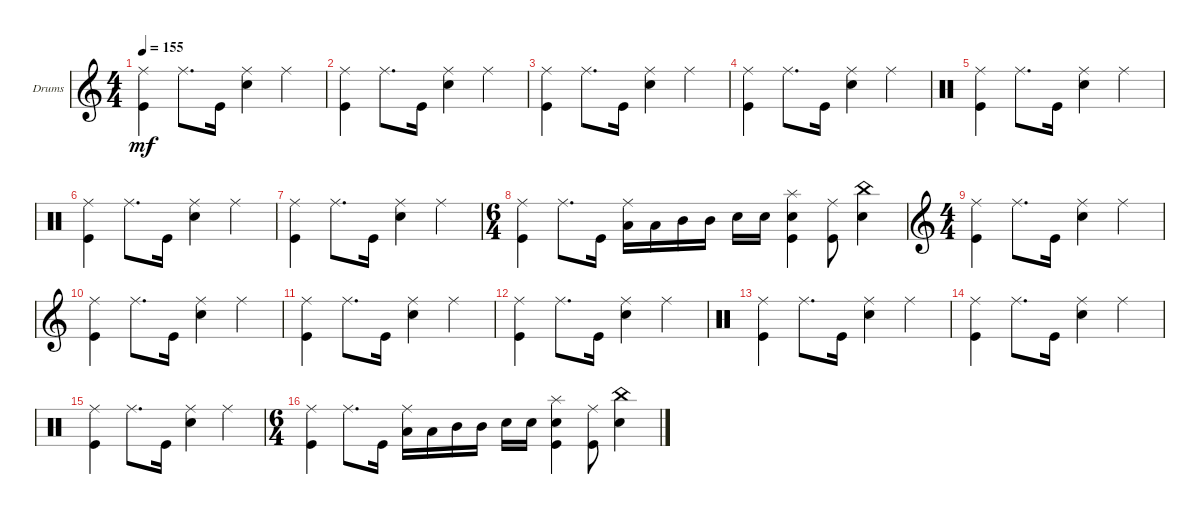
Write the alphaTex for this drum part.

\defaultSystemsLayout 4
\bracketExtendMode groupsimilarinstruments
\firstSystemTrackNameOrientation horizontal
\otherSystemsTrackNameOrientation horizontal
\track ("Drumkit" "Drums") {instrument percussion}
\staff {score}
\articulation defaults
\ts (4 4)
\tempo 155
\clef g2
\ks c
("Kick (hit)" "Ride (middle)").4{dy mf} "Ride (middle)".8{d} "Kick (hit)".16 ("Snare (hit) 2" "Ride (middle)").4 "Ride (middle)".4 |
("Kick (hit)" "Ride (middle)").4 "Ride (middle)".8{d} "Kick (hit)".16 ("Snare (hit) 2" "Ride (middle)").4 "Ride (middle)".4 |
("Kick (hit)" "Ride (middle)").4 "Ride (middle)".8{d} "Kick (hit)".16 ("Snare (hit) 2" "Ride (middle)").4 "Ride (middle)".4 |
("Kick (hit)" "Ride (middle)").4 "Ride (middle)".8{d} "Kick (hit)".16 ("Snare (hit) 2" "Ride (middle)").4 "Ride (middle)".4 |
\clef neutral
("Kick (hit)" "Ride (middle)").4 "Ride (middle)".8{d} "Kick (hit)".16 ("Snare (hit) 2" "Ride (middle)").4 "Ride (middle)".4 |
("Kick (hit)" "Ride (middle)").4 "Ride (middle)".8{d} "Kick (hit)".16 ("Snare (hit) 2" "Ride (middle)").4 "Ride (middle)".4 |
("Kick (hit)" "Ride (middle)").4 "Ride (middle)".8{d} "Kick (hit)".16 ("Snare (hit) 2" "Ride (middle)").4 "Ride (middle)".4 |
\ts (6 4)
("Kick (hit)" "Ride (middle)").4 "Ride (middle)".8{d} "Kick (hit)".16 ("Ride (middle)" "Low Tom (hit)").16 "Low Tom (hit)".16 "Mid Tom (hit)".16 "Mid Tom (hit)".16 "Snare (hit) 2".16 "Snare (hit) 2".16 ("Splash (hit)" "Snare (hit) 2" "Kick (hit)").4 ("Ride (middle)" "Kick (hit)").8 ("China (hit)" "Snare (hit) 2").4 |
\ts (4 4)
\clef g2
\scale
0.472222 ("Kick (hit)" "Ride (middle)").4 "Ride (middle)".8{d} "Kick (hit)".16 ("Snare (hit) 2" "Ride (middle)").4 "Ride (middle)".4 |
\scale
0.263889 ("Kick (hit)" "Ride (middle)").4 "Ride (middle)".8{d} "Kick (hit)".16 ("Snare (hit) 2" "Ride (middle)").4 "Ride (middle)".4 |
\scale
0.263889 ("Kick (hit)" "Ride (middle)").4 "Ride (middle)".8{d} "Kick (hit)".16 ("Snare (hit) 2" "Ride (middle)").4 "Ride (middle)".4 |
\scale
0.333333 ("Kick (hit)" "Ride (middle)").4 "Ride (middle)".8{d} "Kick (hit)".16 ("Snare (hit) 2" "Ride (middle)").4 "Ride (middle)".4 |
\clef neutral
\scale
0.333333 ("Kick (hit)" "Ride (middle)").4 "Ride (middle)".8{d} "Kick (hit)".16 ("Snare (hit) 2" "Ride (middle)").4 "Ride (middle)".4 |
\scale
0.333333 ("Kick (hit)" "Ride (middle)").4 "Ride (middle)".8{d} "Kick (hit)".16 ("Snare (hit) 2" "Ride (middle)").4 "Ride (middle)".4 |
\scale
0.333333 ("Kick (hit)" "Ride (middle)").4 "Ride (middle)".8{d} "Kick (hit)".16 ("Snare (hit) 2" "Ride (middle)").4 "Ride (middle)".4 |
\ts (6 4)
\scale
0.333333 ("Kick (hit)" "Ride (middle)").4 "Ride (middle)".8{d} "Kick (hit)".16 ("Ride (middle)" "Low Tom (hit)").16 "Low Tom (hit)".16 "Mid Tom (hit)".16 "Mid Tom (hit)".16 "Snare (hit) 2".16 "Snare (hit) 2".16 ("Splash (hit)" "Snare (hit) 2" "Kick (hit)").4 ("Ride (middle)" "Kick (hit)").8 ("China (hit)" "Snare (hit) 2").4
